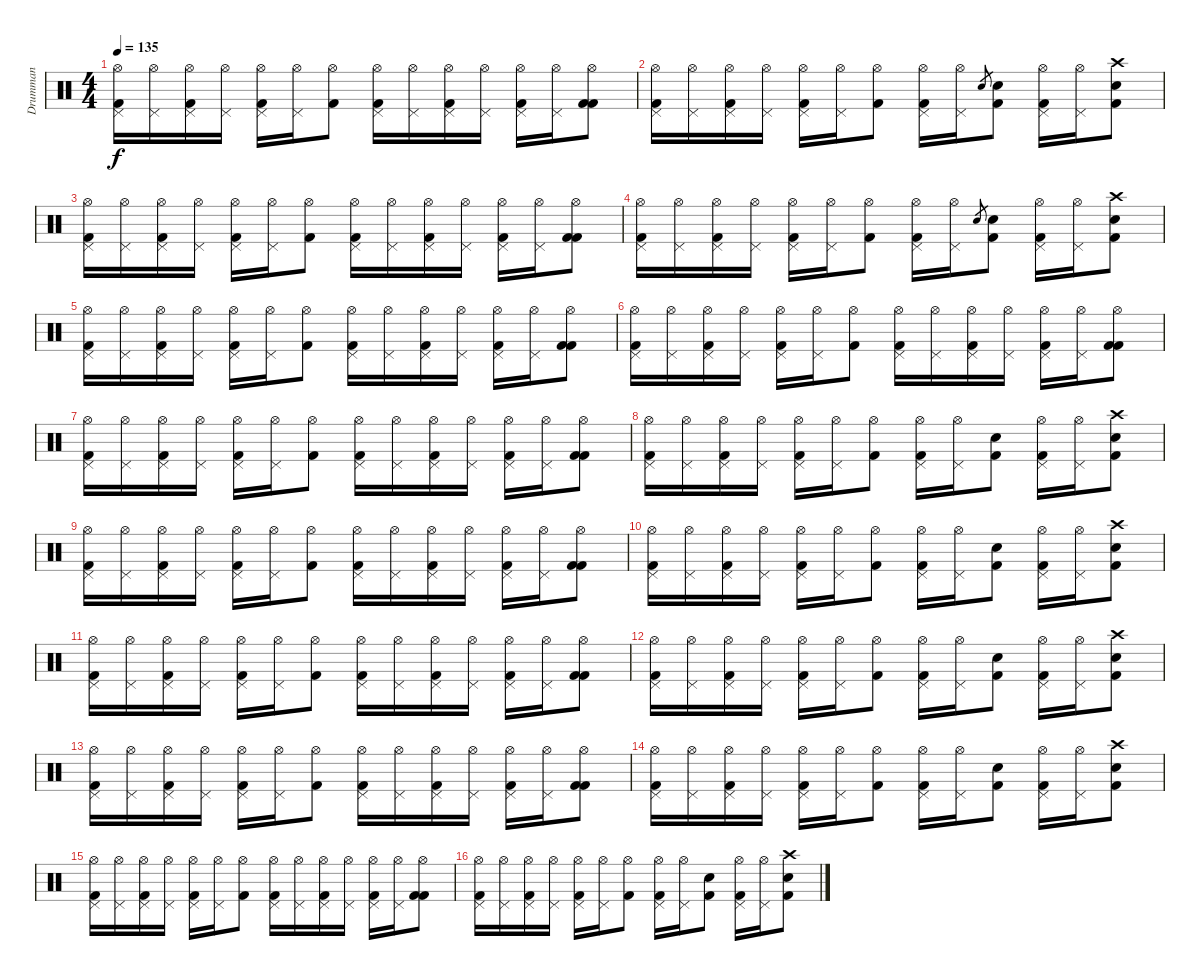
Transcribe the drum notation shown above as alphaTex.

\track ("Drumman" "Drumman") {instrument percussion}
\staff {score}
\articulation defaults
\ts (4 4)
\tempo 135
\clef neutral
\ks c
("Hi-Hat (open)" "Pedal Hi-Hat (hit)" "Kick (hit) 2").16{dy f} ("Hi-Hat (open)" "Pedal Hi-Hat (hit)").16 ("Hi-Hat (open)" "Pedal Hi-Hat (hit)" "Kick (hit) 2").16 ("Hi-Hat (open)" "Pedal Hi-Hat (hit)").16 ("Hi-Hat (open)" "Pedal Hi-Hat (hit)" "Kick (hit) 2").16 ("Hi-Hat (open)" "Pedal Hi-Hat (hit)").16 ("Hi-Hat (open)" "Kick (hit) 2").8 ("Hi-Hat (open)" "Pedal Hi-Hat (hit)" "Kick (hit) 2").16 ("Hi-Hat (open)" "Pedal Hi-Hat (hit)").16 ("Hi-Hat (open)" "Pedal Hi-Hat (hit)" "Kick (hit) 2").16 ("Hi-Hat (open)" "Pedal Hi-Hat (hit)").16 ("Hi-Hat (open)" "Pedal Hi-Hat (hit)" "Kick (hit) 2").16 ("Hi-Hat (open)" "Pedal Hi-Hat (hit)").16 ("Hi-Hat (open)" "Kick (hit) 2" "Kick (hit) 2").8 |
("Hi-Hat (open)" "Pedal Hi-Hat (hit)" "Kick (hit) 2").16 ("Hi-Hat (open)" "Pedal Hi-Hat (hit)").16 ("Hi-Hat (open)" "Pedal Hi-Hat (hit)" "Kick (hit) 2").16 ("Hi-Hat (open)" "Pedal Hi-Hat (hit)").16 ("Hi-Hat (open)" "Pedal Hi-Hat (hit)" "Kick (hit) 2").16 ("Hi-Hat (open)" "Pedal Hi-Hat (hit)").16 ("Hi-Hat (open)" "Kick (hit) 2").8 ("Hi-Hat (open)" "Pedal Hi-Hat (hit)" "Kick (hit) 2").16 ("Hi-Hat (open)" "Pedal Hi-Hat (hit)").16 "Snare (hit) 2".8{gr} ("Snare (hit) 2" "Kick (hit) 2").8 ("Hi-Hat (open)" "Pedal Hi-Hat (hit)" "Kick (hit) 2").16 ("Hi-Hat (open)" "Pedal Hi-Hat (hit)").16 ("Crash high (hit)" "Snare (hit) 2" "Kick (hit) 2").8 |
("Hi-Hat (open)" "Pedal Hi-Hat (hit)" "Kick (hit) 2").16 ("Hi-Hat (open)" "Pedal Hi-Hat (hit)").16 ("Hi-Hat (open)" "Pedal Hi-Hat (hit)" "Kick (hit) 2").16 ("Hi-Hat (open)" "Pedal Hi-Hat (hit)").16 ("Hi-Hat (open)" "Pedal Hi-Hat (hit)" "Kick (hit) 2").16 ("Hi-Hat (open)" "Pedal Hi-Hat (hit)").16 ("Hi-Hat (open)" "Kick (hit) 2").8 ("Hi-Hat (open)" "Pedal Hi-Hat (hit)" "Kick (hit) 2").16 ("Hi-Hat (open)" "Pedal Hi-Hat (hit)").16 ("Hi-Hat (open)" "Pedal Hi-Hat (hit)" "Kick (hit) 2").16 ("Hi-Hat (open)" "Pedal Hi-Hat (hit)").16 ("Hi-Hat (open)" "Pedal Hi-Hat (hit)" "Kick (hit) 2").16 ("Hi-Hat (open)" "Pedal Hi-Hat (hit)").16 ("Hi-Hat (open)" "Kick (hit) 2" "Kick (hit) 2").8 |
("Hi-Hat (open)" "Pedal Hi-Hat (hit)" "Kick (hit) 2").16 ("Hi-Hat (open)" "Pedal Hi-Hat (hit)").16 ("Hi-Hat (open)" "Pedal Hi-Hat (hit)" "Kick (hit) 2").16 ("Hi-Hat (open)" "Pedal Hi-Hat (hit)").16 ("Hi-Hat (open)" "Pedal Hi-Hat (hit)" "Kick (hit) 2").16 ("Hi-Hat (open)" "Pedal Hi-Hat (hit)").16 ("Hi-Hat (open)" "Kick (hit) 2").8 ("Hi-Hat (open)" "Pedal Hi-Hat (hit)" "Kick (hit) 2").16 ("Hi-Hat (open)" "Pedal Hi-Hat (hit)").16 "Snare (hit) 2".8{gr} ("Snare (hit) 2" "Kick (hit) 2").8 ("Hi-Hat (open)" "Pedal Hi-Hat (hit)" "Kick (hit) 2").16 ("Hi-Hat (open)" "Pedal Hi-Hat (hit)").16 ("Crash high (hit)" "Snare (hit) 2" "Kick (hit) 2").8 |
("Hi-Hat (open)" "Pedal Hi-Hat (hit)" "Kick (hit) 2").16 ("Hi-Hat (open)" "Pedal Hi-Hat (hit)").16 ("Hi-Hat (open)" "Pedal Hi-Hat (hit)" "Kick (hit) 2").16 ("Hi-Hat (open)" "Pedal Hi-Hat (hit)").16 ("Hi-Hat (open)" "Pedal Hi-Hat (hit)" "Kick (hit) 2").16 ("Hi-Hat (open)" "Pedal Hi-Hat (hit)").16 ("Hi-Hat (open)" "Kick (hit) 2").8 ("Hi-Hat (open)" "Pedal Hi-Hat (hit)" "Kick (hit) 2").16 ("Hi-Hat (open)" "Pedal Hi-Hat (hit)").16 ("Hi-Hat (open)" "Pedal Hi-Hat (hit)" "Kick (hit) 2").16 ("Hi-Hat (open)" "Pedal Hi-Hat (hit)").16 ("Hi-Hat (open)" "Pedal Hi-Hat (hit)" "Kick (hit) 2").16 ("Hi-Hat (open)" "Pedal Hi-Hat (hit)").16 ("Hi-Hat (open)" "Kick (hit) 2" "Kick (hit) 2").8 |
("Hi-Hat (open)" "Pedal Hi-Hat (hit)" "Kick (hit) 2").16 ("Hi-Hat (open)" "Pedal Hi-Hat (hit)").16 ("Hi-Hat (open)" "Pedal Hi-Hat (hit)" "Kick (hit) 2").16 ("Hi-Hat (open)" "Pedal Hi-Hat (hit)").16 ("Hi-Hat (open)" "Pedal Hi-Hat (hit)" "Kick (hit) 2").16 ("Hi-Hat (open)" "Pedal Hi-Hat (hit)").16 ("Hi-Hat (open)" "Kick (hit) 2").8 ("Hi-Hat (open)" "Pedal Hi-Hat (hit)" "Kick (hit) 2").16 ("Hi-Hat (open)" "Pedal Hi-Hat (hit)").16 ("Hi-Hat (open)" "Pedal Hi-Hat (hit)" "Kick (hit) 2").16 ("Hi-Hat (open)" "Pedal Hi-Hat (hit)").16 ("Hi-Hat (open)" "Pedal Hi-Hat (hit)" "Kick (hit) 2").16 ("Hi-Hat (open)" "Pedal Hi-Hat (hit)").16 ("Hi-Hat (open)" "Kick (hit) 2" "Kick (hit) 2").8 |
("Hi-Hat (open)" "Pedal Hi-Hat (hit)" "Kick (hit) 2").16 ("Hi-Hat (open)" "Pedal Hi-Hat (hit)").16 ("Hi-Hat (open)" "Pedal Hi-Hat (hit)" "Kick (hit) 2").16 ("Hi-Hat (open)" "Pedal Hi-Hat (hit)").16 ("Hi-Hat (open)" "Pedal Hi-Hat (hit)" "Kick (hit) 2").16 ("Hi-Hat (open)" "Pedal Hi-Hat (hit)").16 ("Hi-Hat (open)" "Kick (hit) 2").8 ("Hi-Hat (open)" "Pedal Hi-Hat (hit)" "Kick (hit) 2").16 ("Hi-Hat (open)" "Pedal Hi-Hat (hit)").16 ("Hi-Hat (open)" "Pedal Hi-Hat (hit)" "Kick (hit) 2").16 ("Hi-Hat (open)" "Pedal Hi-Hat (hit)").16 ("Hi-Hat (open)" "Pedal Hi-Hat (hit)" "Kick (hit) 2").16 ("Hi-Hat (open)" "Pedal Hi-Hat (hit)").16 ("Hi-Hat (open)" "Kick (hit) 2" "Kick (hit) 2").8 |
("Hi-Hat (open)" "Pedal Hi-Hat (hit)" "Kick (hit) 2").16 ("Hi-Hat (open)" "Pedal Hi-Hat (hit)").16 ("Hi-Hat (open)" "Pedal Hi-Hat (hit)" "Kick (hit) 2").16 ("Hi-Hat (open)" "Pedal Hi-Hat (hit)").16 ("Hi-Hat (open)" "Pedal Hi-Hat (hit)" "Kick (hit) 2").16 ("Hi-Hat (open)" "Pedal Hi-Hat (hit)").16 ("Hi-Hat (open)" "Kick (hit) 2").8 ("Hi-Hat (open)" "Pedal Hi-Hat (hit)" "Kick (hit) 2").16 ("Hi-Hat (open)" "Pedal Hi-Hat (hit)").16 ("Snare (hit) 2" "Kick (hit) 2").8 ("Hi-Hat (open)" "Pedal Hi-Hat (hit)" "Kick (hit) 2").16 ("Hi-Hat (open)" "Pedal Hi-Hat (hit)").16 ("Crash high (hit)" "Snare (hit) 2" "Kick (hit) 2").8 |
("Hi-Hat (open)" "Pedal Hi-Hat (hit)" "Kick (hit) 2").16 ("Hi-Hat (open)" "Pedal Hi-Hat (hit)").16 ("Hi-Hat (open)" "Pedal Hi-Hat (hit)" "Kick (hit) 2").16 ("Hi-Hat (open)" "Pedal Hi-Hat (hit)").16 ("Hi-Hat (open)" "Pedal Hi-Hat (hit)" "Kick (hit) 2").16 ("Hi-Hat (open)" "Pedal Hi-Hat (hit)").16 ("Hi-Hat (open)" "Kick (hit) 2").8 ("Hi-Hat (open)" "Pedal Hi-Hat (hit)" "Kick (hit) 2").16 ("Hi-Hat (open)" "Pedal Hi-Hat (hit)").16 ("Hi-Hat (open)" "Pedal Hi-Hat (hit)" "Kick (hit) 2").16 ("Hi-Hat (open)" "Pedal Hi-Hat (hit)").16 ("Hi-Hat (open)" "Pedal Hi-Hat (hit)" "Kick (hit) 2").16 ("Hi-Hat (open)" "Pedal Hi-Hat (hit)").16 ("Hi-Hat (open)" "Kick (hit) 2" "Kick (hit) 2").8 |
("Hi-Hat (open)" "Pedal Hi-Hat (hit)" "Kick (hit) 2").16 ("Hi-Hat (open)" "Pedal Hi-Hat (hit)").16 ("Hi-Hat (open)" "Pedal Hi-Hat (hit)" "Kick (hit) 2").16 ("Hi-Hat (open)" "Pedal Hi-Hat (hit)").16 ("Hi-Hat (open)" "Pedal Hi-Hat (hit)" "Kick (hit) 2").16 ("Hi-Hat (open)" "Pedal Hi-Hat (hit)").16 ("Hi-Hat (open)" "Kick (hit) 2").8 ("Hi-Hat (open)" "Pedal Hi-Hat (hit)" "Kick (hit) 2").16 ("Hi-Hat (open)" "Pedal Hi-Hat (hit)").16 ("Snare (hit) 2" "Kick (hit) 2").8 ("Hi-Hat (open)" "Pedal Hi-Hat (hit)" "Kick (hit) 2").16 ("Hi-Hat (open)" "Pedal Hi-Hat (hit)").16 ("Crash high (hit)" "Snare (hit) 2" "Kick (hit) 2").8 |
("Hi-Hat (open)" "Pedal Hi-Hat (hit)" "Kick (hit) 2").16 ("Hi-Hat (open)" "Pedal Hi-Hat (hit)").16 ("Hi-Hat (open)" "Pedal Hi-Hat (hit)" "Kick (hit) 2").16 ("Hi-Hat (open)" "Pedal Hi-Hat (hit)").16 ("Hi-Hat (open)" "Pedal Hi-Hat (hit)" "Kick (hit) 2").16 ("Hi-Hat (open)" "Pedal Hi-Hat (hit)").16 ("Hi-Hat (open)" "Kick (hit) 2").8 ("Hi-Hat (open)" "Pedal Hi-Hat (hit)" "Kick (hit) 2").16 ("Hi-Hat (open)" "Pedal Hi-Hat (hit)").16 ("Hi-Hat (open)" "Pedal Hi-Hat (hit)" "Kick (hit) 2").16 ("Hi-Hat (open)" "Pedal Hi-Hat (hit)").16 ("Hi-Hat (open)" "Pedal Hi-Hat (hit)" "Kick (hit) 2").16 ("Hi-Hat (open)" "Pedal Hi-Hat (hit)").16 ("Hi-Hat (open)" "Kick (hit) 2" "Kick (hit) 2").8 |
("Hi-Hat (open)" "Pedal Hi-Hat (hit)" "Kick (hit) 2").16 ("Hi-Hat (open)" "Pedal Hi-Hat (hit)").16 ("Hi-Hat (open)" "Pedal Hi-Hat (hit)" "Kick (hit) 2").16 ("Hi-Hat (open)" "Pedal Hi-Hat (hit)").16 ("Hi-Hat (open)" "Pedal Hi-Hat (hit)" "Kick (hit) 2").16 ("Hi-Hat (open)" "Pedal Hi-Hat (hit)").16 ("Hi-Hat (open)" "Kick (hit) 2").8 ("Hi-Hat (open)" "Pedal Hi-Hat (hit)" "Kick (hit) 2").16 ("Hi-Hat (open)" "Pedal Hi-Hat (hit)").16 ("Snare (hit) 2" "Kick (hit) 2").8 ("Hi-Hat (open)" "Pedal Hi-Hat (hit)" "Kick (hit) 2").16 ("Hi-Hat (open)" "Pedal Hi-Hat (hit)").16 ("Crash high (hit)" "Snare (hit) 2" "Kick (hit) 2").8 |
("Hi-Hat (open)" "Pedal Hi-Hat (hit)" "Kick (hit) 2").16 ("Hi-Hat (open)" "Pedal Hi-Hat (hit)").16 ("Hi-Hat (open)" "Pedal Hi-Hat (hit)" "Kick (hit) 2").16 ("Hi-Hat (open)" "Pedal Hi-Hat (hit)").16 ("Hi-Hat (open)" "Pedal Hi-Hat (hit)" "Kick (hit) 2").16 ("Hi-Hat (open)" "Pedal Hi-Hat (hit)").16 ("Hi-Hat (open)" "Kick (hit) 2").8 ("Hi-Hat (open)" "Pedal Hi-Hat (hit)" "Kick (hit) 2").16 ("Hi-Hat (open)" "Pedal Hi-Hat (hit)").16 ("Hi-Hat (open)" "Pedal Hi-Hat (hit)" "Kick (hit) 2").16 ("Hi-Hat (open)" "Pedal Hi-Hat (hit)").16 ("Hi-Hat (open)" "Pedal Hi-Hat (hit)" "Kick (hit) 2").16 ("Hi-Hat (open)" "Pedal Hi-Hat (hit)").16 ("Hi-Hat (open)" "Kick (hit) 2" "Kick (hit) 2").8 |
("Hi-Hat (open)" "Pedal Hi-Hat (hit)" "Kick (hit) 2").16 ("Hi-Hat (open)" "Pedal Hi-Hat (hit)").16 ("Hi-Hat (open)" "Pedal Hi-Hat (hit)" "Kick (hit) 2").16 ("Hi-Hat (open)" "Pedal Hi-Hat (hit)").16 ("Hi-Hat (open)" "Pedal Hi-Hat (hit)" "Kick (hit) 2").16 ("Hi-Hat (open)" "Pedal Hi-Hat (hit)").16 ("Hi-Hat (open)" "Kick (hit) 2").8 ("Hi-Hat (open)" "Pedal Hi-Hat (hit)" "Kick (hit) 2").16 ("Hi-Hat (open)" "Pedal Hi-Hat (hit)").16 ("Snare (hit) 2" "Kick (hit) 2").8 ("Hi-Hat (open)" "Pedal Hi-Hat (hit)" "Kick (hit) 2").16 ("Hi-Hat (open)" "Pedal Hi-Hat (hit)").16 ("Crash high (hit)" "Snare (hit) 2" "Kick (hit) 2").8 |
("Hi-Hat (open)" "Pedal Hi-Hat (hit)" "Kick (hit) 2").16 ("Hi-Hat (open)" "Pedal Hi-Hat (hit)").16 ("Hi-Hat (open)" "Pedal Hi-Hat (hit)" "Kick (hit) 2").16 ("Hi-Hat (open)" "Pedal Hi-Hat (hit)").16 ("Hi-Hat (open)" "Pedal Hi-Hat (hit)" "Kick (hit) 2").16 ("Hi-Hat (open)" "Pedal Hi-Hat (hit)").16 ("Hi-Hat (open)" "Kick (hit) 2").8 ("Hi-Hat (open)" "Pedal Hi-Hat (hit)" "Kick (hit) 2").16 ("Hi-Hat (open)" "Pedal Hi-Hat (hit)").16 ("Hi-Hat (open)" "Pedal Hi-Hat (hit)" "Kick (hit) 2").16 ("Hi-Hat (open)" "Pedal Hi-Hat (hit)").16 ("Hi-Hat (open)" "Pedal Hi-Hat (hit)" "Kick (hit) 2").16 ("Hi-Hat (open)" "Pedal Hi-Hat (hit)").16 ("Hi-Hat (open)" "Kick (hit) 2" "Kick (hit) 2").8 |
("Hi-Hat (open)" "Pedal Hi-Hat (hit)" "Kick (hit) 2").16 ("Hi-Hat (open)" "Pedal Hi-Hat (hit)").16 ("Hi-Hat (open)" "Pedal Hi-Hat (hit)" "Kick (hit) 2").16 ("Hi-Hat (open)" "Pedal Hi-Hat (hit)").16 ("Hi-Hat (open)" "Pedal Hi-Hat (hit)" "Kick (hit) 2").16 ("Hi-Hat (open)" "Pedal Hi-Hat (hit)").16 ("Hi-Hat (open)" "Kick (hit) 2").8 ("Hi-Hat (open)" "Pedal Hi-Hat (hit)" "Kick (hit) 2").16 ("Hi-Hat (open)" "Pedal Hi-Hat (hit)").16 ("Snare (hit) 2" "Kick (hit) 2").8 ("Hi-Hat (open)" "Pedal Hi-Hat (hit)" "Kick (hit) 2").16 ("Hi-Hat (open)" "Pedal Hi-Hat (hit)").16 ("Crash high (hit)" "Snare (hit) 2" "Kick (hit) 2").8
